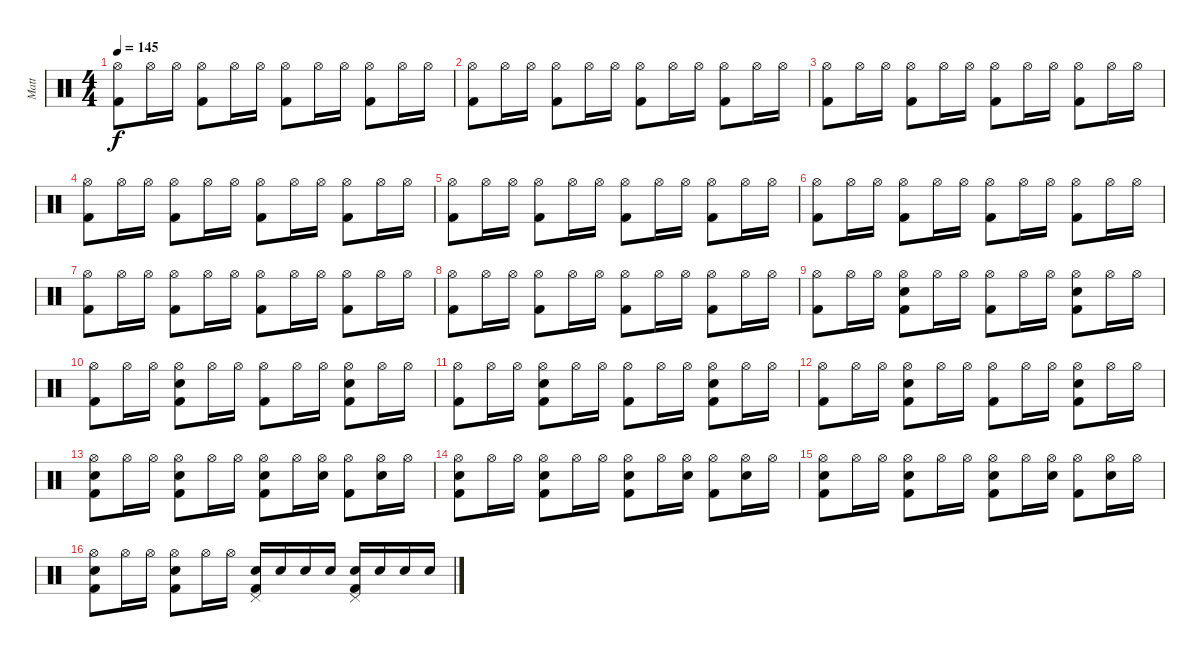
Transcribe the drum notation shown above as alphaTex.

\track ("Matt" "Matt") {instrument percussion}
\staff {score}
\articulation defaults
\ts (4 4)
\tempo 145
\clef neutral
\ks c
("Hi-Hat (open)" "Kick (hit) 2").8{dy f} "Hi-Hat (open)".16 "Hi-Hat (open)".16 ("Hi-Hat (open)" "Kick (hit) 2").8 "Hi-Hat (open)".16 "Hi-Hat (open)".16 ("Hi-Hat (open)" "Kick (hit) 2").8 "Hi-Hat (open)".16 "Hi-Hat (open)".16 ("Hi-Hat (open)" "Kick (hit) 2").8 "Hi-Hat (open)".16 "Hi-Hat (open)".16 |
("Hi-Hat (open)" "Kick (hit) 2").8 "Hi-Hat (open)".16 "Hi-Hat (open)".16 ("Hi-Hat (open)" "Kick (hit) 2").8 "Hi-Hat (open)".16 "Hi-Hat (open)".16 ("Hi-Hat (open)" "Kick (hit) 2").8 "Hi-Hat (open)".16 "Hi-Hat (open)".16 ("Hi-Hat (open)" "Kick (hit) 2").8 "Hi-Hat (open)".16 "Hi-Hat (open)".16 |
("Hi-Hat (open)" "Kick (hit) 2").8 "Hi-Hat (open)".16 "Hi-Hat (open)".16 ("Hi-Hat (open)" "Kick (hit) 2").8 "Hi-Hat (open)".16 "Hi-Hat (open)".16 ("Hi-Hat (open)" "Kick (hit) 2").8 "Hi-Hat (open)".16 "Hi-Hat (open)".16 ("Hi-Hat (open)" "Kick (hit) 2").8 "Hi-Hat (open)".16 "Hi-Hat (open)".16 |
("Hi-Hat (open)" "Kick (hit) 2").8 "Hi-Hat (open)".16 "Hi-Hat (open)".16 ("Hi-Hat (open)" "Kick (hit) 2").8 "Hi-Hat (open)".16 "Hi-Hat (open)".16 ("Hi-Hat (open)" "Kick (hit) 2").8 "Hi-Hat (open)".16 "Hi-Hat (open)".16 ("Hi-Hat (open)" "Kick (hit) 2").8 "Hi-Hat (open)".16 "Hi-Hat (open)".16 |
("Hi-Hat (open)" "Kick (hit) 2").8 "Hi-Hat (open)".16 "Hi-Hat (open)".16 ("Hi-Hat (open)" "Kick (hit) 2").8 "Hi-Hat (open)".16 "Hi-Hat (open)".16 ("Hi-Hat (open)" "Kick (hit) 2").8 "Hi-Hat (open)".16 "Hi-Hat (open)".16 ("Hi-Hat (open)" "Kick (hit) 2").8 "Hi-Hat (open)".16 "Hi-Hat (open)".16 |
("Hi-Hat (open)" "Kick (hit) 2").8 "Hi-Hat (open)".16 "Hi-Hat (open)".16 ("Hi-Hat (open)" "Kick (hit) 2").8 "Hi-Hat (open)".16 "Hi-Hat (open)".16 ("Hi-Hat (open)" "Kick (hit) 2").8 "Hi-Hat (open)".16 "Hi-Hat (open)".16 ("Hi-Hat (open)" "Kick (hit) 2").8 "Hi-Hat (open)".16 "Hi-Hat (open)".16 |
("Hi-Hat (open)" "Kick (hit) 2").8 "Hi-Hat (open)".16 "Hi-Hat (open)".16 ("Hi-Hat (open)" "Kick (hit) 2").8 "Hi-Hat (open)".16 "Hi-Hat (open)".16 ("Hi-Hat (open)" "Kick (hit) 2").8 "Hi-Hat (open)".16 "Hi-Hat (open)".16 ("Hi-Hat (open)" "Kick (hit) 2").8 "Hi-Hat (open)".16 "Hi-Hat (open)".16 |
("Hi-Hat (open)" "Kick (hit) 2").8 "Hi-Hat (open)".16 "Hi-Hat (open)".16 ("Hi-Hat (open)" "Kick (hit) 2").8 "Hi-Hat (open)".16 "Hi-Hat (open)".16 ("Hi-Hat (open)" "Kick (hit) 2").8 "Hi-Hat (open)".16 "Hi-Hat (open)".16 ("Hi-Hat (open)" "Kick (hit) 2").8 "Hi-Hat (open)".16 "Hi-Hat (open)".16 |
("Hi-Hat (open)" "Kick (hit) 2").8 "Hi-Hat (open)".16 "Hi-Hat (open)".16 ("Hi-Hat (open)" "Snare (hit) 2" "Kick (hit) 2").8 "Hi-Hat (open)".16 "Hi-Hat (open)".16 ("Hi-Hat (open)" "Kick (hit) 2").8 "Hi-Hat (open)".16 "Hi-Hat (open)".16 ("Hi-Hat (open)" "Snare (hit) 2" "Kick (hit) 2").8 "Hi-Hat (open)".16 "Hi-Hat (open)".16 |
("Hi-Hat (open)" "Kick (hit) 2").8 "Hi-Hat (open)".16 "Hi-Hat (open)".16 ("Hi-Hat (open)" "Snare (hit) 2" "Kick (hit) 2").8 "Hi-Hat (open)".16 "Hi-Hat (open)".16 ("Hi-Hat (open)" "Kick (hit) 2").8 "Hi-Hat (open)".16 "Hi-Hat (open)".16 ("Hi-Hat (open)" "Snare (hit) 2" "Kick (hit) 2").8 "Hi-Hat (open)".16 "Hi-Hat (open)".16 |
("Hi-Hat (open)" "Kick (hit) 2").8 "Hi-Hat (open)".16 "Hi-Hat (open)".16 ("Hi-Hat (open)" "Snare (hit) 2" "Kick (hit) 2").8 "Hi-Hat (open)".16 "Hi-Hat (open)".16 ("Hi-Hat (open)" "Kick (hit) 2").8 "Hi-Hat (open)".16 "Hi-Hat (open)".16 ("Hi-Hat (open)" "Snare (hit) 2" "Kick (hit) 2").8 "Hi-Hat (open)".16 "Hi-Hat (open)".16 |
("Hi-Hat (open)" "Kick (hit) 2").8 "Hi-Hat (open)".16 "Hi-Hat (open)".16 ("Hi-Hat (open)" "Snare (hit) 2" "Kick (hit) 2").8 "Hi-Hat (open)".16 "Hi-Hat (open)".16 ("Hi-Hat (open)" "Kick (hit) 2").8 "Hi-Hat (open)".16 "Hi-Hat (open)".16 ("Hi-Hat (open)" "Snare (hit) 2" "Kick (hit) 2").8 "Hi-Hat (open)".16 "Hi-Hat (open)".16 |
("Hi-Hat (open)" "Snare (hit) 2" "Kick (hit) 2").8 "Hi-Hat (open)".16 "Hi-Hat (open)".16 ("Hi-Hat (open)" "Snare (hit) 2" "Kick (hit) 2").8 "Hi-Hat (open)".16 "Hi-Hat (open)".16 ("Hi-Hat (open)" "Snare (hit) 2" "Kick (hit) 2").8 "Hi-Hat (open)".16 ("Hi-Hat (open)" "Snare (hit) 2").16 ("Hi-Hat (open)" "Kick (hit) 2").8 ("Hi-Hat (open)" "Snare (hit) 2").16 "Hi-Hat (open)".16 |
("Hi-Hat (open)" "Snare (hit) 2" "Kick (hit) 2").8 "Hi-Hat (open)".16 "Hi-Hat (open)".16 ("Hi-Hat (open)" "Snare (hit) 2" "Kick (hit) 2").8 "Hi-Hat (open)".16 "Hi-Hat (open)".16 ("Hi-Hat (open)" "Snare (hit) 2" "Kick (hit) 2").8 "Hi-Hat (open)".16 ("Hi-Hat (open)" "Snare (hit) 2").16 ("Hi-Hat (open)" "Kick (hit) 2").8 ("Hi-Hat (open)" "Snare (hit) 2").16 "Hi-Hat (open)".16 |
("Hi-Hat (open)" "Snare (hit) 2" "Kick (hit) 2").8 "Hi-Hat (open)".16 "Hi-Hat (open)".16 ("Hi-Hat (open)" "Snare (hit) 2" "Kick (hit) 2").8 "Hi-Hat (open)".16 "Hi-Hat (open)".16 ("Hi-Hat (open)" "Snare (hit) 2" "Kick (hit) 2").8 "Hi-Hat (open)".16 ("Hi-Hat (open)" "Snare (hit) 2").16 ("Hi-Hat (open)" "Kick (hit) 2").8 ("Hi-Hat (open)" "Snare (hit) 2").16 "Hi-Hat (open)".16 |
("Hi-Hat (open)" "Snare (hit) 2" "Kick (hit) 2").8 "Hi-Hat (open)".16 "Hi-Hat (open)".16 ("Hi-Hat (open)" "Snare (hit) 2" "Kick (hit) 2").8 "Hi-Hat (open)".16 "Hi-Hat (open)".16 ("Pedal Hi-Hat (hit)" "Snare (hit) 2" "Kick (hit) 2").16 "Snare (hit) 2".16 "Snare (hit) 2".16 "Snare (hit) 2".16 ("Pedal Hi-Hat (hit)" "Snare (hit) 2" "Kick (hit) 2").16 "Snare (hit) 2".16 "Snare (hit) 2".16 "Snare (hit) 2".16
